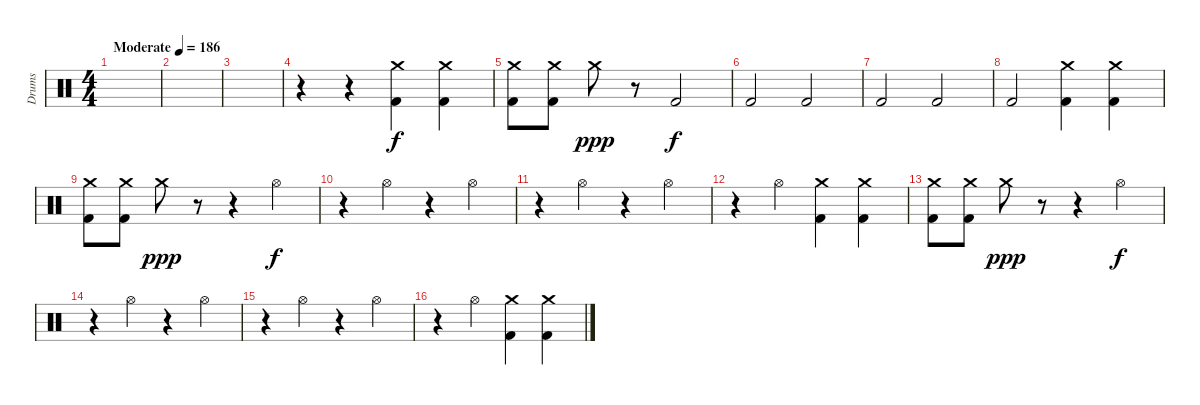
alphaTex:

\track ("Drums" "Drums") {instrument percussion}
\staff {score}
\articulation defaults
\ts (4 4)
\tempo (186 "Moderate")
\clef neutral
\ks c
|
|
|
r.4 r.4 ("Crash medium (hit)" "Kick (hit) 2").4 ("Crash medium (hit)" "Kick (hit) 2").4 |
("Crash medium (hit)" "Kick (hit) 2").8 ("Crash medium (hit)" "Kick (hit) 2").8 "Crash medium (hit)".8{dy ppp} r.8 "Kick (hit) 2".2{dy f} |
"Kick (hit) 2".2 "Kick (hit) 2".2 |
"Kick (hit) 2".2 "Kick (hit) 2".2 |
"Kick (hit) 2".2 ("Crash medium (hit)" "Kick (hit) 2").4 ("Crash medium (hit)" "Kick (hit) 2").4 |
("Crash medium (hit)" "Kick (hit) 2").8 ("Crash medium (hit)" "Kick (hit) 2").8 "Crash medium (hit)".8{dy ppp} r.8 r.4 "Hi-Hat (open)".4{dy f} |
r.4 "Hi-Hat (open)".4 r.4 "Hi-Hat (open)".4 |
r.4 "Hi-Hat (open)".4 r.4 "Hi-Hat (open)".4 |
r.4 "Hi-Hat (open)".4 ("Crash medium (hit)" "Kick (hit) 2").4 ("Crash medium (hit)" "Kick (hit) 2").4 |
("Crash medium (hit)" "Kick (hit) 2").8 ("Crash medium (hit)" "Kick (hit) 2").8 "Crash medium (hit)".8{dy ppp} r.8 r.4 "Hi-Hat (open)".4{dy f} |
r.4 "Hi-Hat (open)".4 r.4 "Hi-Hat (open)".4 |
r.4 "Hi-Hat (open)".4 r.4 "Hi-Hat (open)".4 |
r.4 "Hi-Hat (open)".4 ("Crash medium (hit)" "Kick (hit) 2").4 ("Crash medium (hit)" "Kick (hit) 2").4
